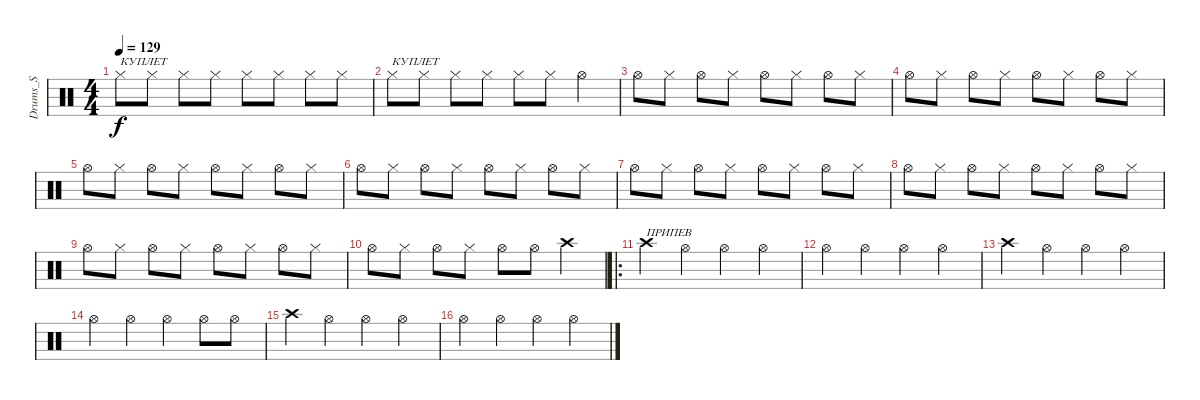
\track ("Drums_S" "Drums_S") {instrument percussion}
\staff {score}
\articulation defaults
\ts (4 4)
\tempo 129
\clef neutral
\ks c "Hi-Hat (closed)".8{txt "КУПЛЕТ" dy f} "Hi-Hat (closed)".8 "Hi-Hat (closed)".8 "Hi-Hat (closed)".8 "Hi-Hat (closed)".8 "Hi-Hat (closed)".8 "Hi-Hat (closed)".8 "Hi-Hat (closed)".8
|
"Hi-Hat (closed)".8{txt "КУПЛЕТ"} "Hi-Hat (closed)".8 "Hi-Hat (closed)".8 "Hi-Hat (closed)".8 "Hi-Hat (closed)".8 "Hi-Hat (closed)".8 "Hi-Hat (open)".4 |
"Hi-Hat (open)".8 "Hi-Hat (closed)".8 "Hi-Hat (open)".8 "Hi-Hat (closed)".8 "Hi-Hat (open)".8 "Hi-Hat (closed)".8 "Hi-Hat (open)".8 "Hi-Hat (closed)".8 |
"Hi-Hat (open)".8 "Hi-Hat (closed)".8 "Hi-Hat (open)".8 "Hi-Hat (closed)".8 "Hi-Hat (open)".8 "Hi-Hat (closed)".8 "Hi-Hat (open)".8 "Hi-Hat (closed)".8 |
"Hi-Hat (open)".8 "Hi-Hat (closed)".8 "Hi-Hat (open)".8 "Hi-Hat (closed)".8 "Hi-Hat (open)".8 "Hi-Hat (closed)".8 "Hi-Hat (open)".8 "Hi-Hat (closed)".8 |
"Hi-Hat (open)".8 "Hi-Hat (closed)".8 "Hi-Hat (open)".8 "Hi-Hat (closed)".8 "Hi-Hat (open)".8 "Hi-Hat (closed)".8 "Hi-Hat (open)".8 "Hi-Hat (closed)".8 |
"Hi-Hat (open)".8 "Hi-Hat (closed)".8 "Hi-Hat (open)".8 "Hi-Hat (closed)".8 "Hi-Hat (open)".8 "Hi-Hat (closed)".8 "Hi-Hat (open)".8 "Hi-Hat (closed)".8 |
"Hi-Hat (open)".8 "Hi-Hat (closed)".8 "Hi-Hat (open)".8 "Hi-Hat (closed)".8 "Hi-Hat (open)".8 "Hi-Hat (closed)".8 "Hi-Hat (open)".8 "Hi-Hat (closed)".8 |
"Hi-Hat (open)".8 "Hi-Hat (closed)".8 "Hi-Hat (open)".8 "Hi-Hat (closed)".8 "Hi-Hat (open)".8 "Hi-Hat (closed)".8 "Hi-Hat (open)".8 "Hi-Hat (closed)".8 |
"Hi-Hat (open)".8 "Hi-Hat (closed)".8 "Hi-Hat (open)".8 "Hi-Hat (closed)".8 "Hi-Hat (open)".8 "Hi-Hat (open)".8 "Crash high (hit)".4 |
\ro "Crash high (hit)".4{txt "ПРИПЕВ"} "Hi-Hat (open)".4 "Hi-Hat (open)".4 "Hi-Hat (open)".4
|
"Hi-Hat (open)".4 "Hi-Hat (open)".4 "Hi-Hat (open)".4 "Hi-Hat (open)".4 |
"Crash high (hit)".4 "Hi-Hat (open)".4 "Hi-Hat (open)".4 "Hi-Hat (open)".4 |
"Hi-Hat (open)".4 "Hi-Hat (open)".4 "Hi-Hat (open)".4 "Hi-Hat (open)".8 "Hi-Hat (open)".8 |
"Crash high (hit)".4 "Hi-Hat (open)".4 "Hi-Hat (open)".4 "Hi-Hat (open)".4 |
"Hi-Hat (open)".4 "Hi-Hat (open)".4 "Hi-Hat (open)".4 "Hi-Hat (open)".4
